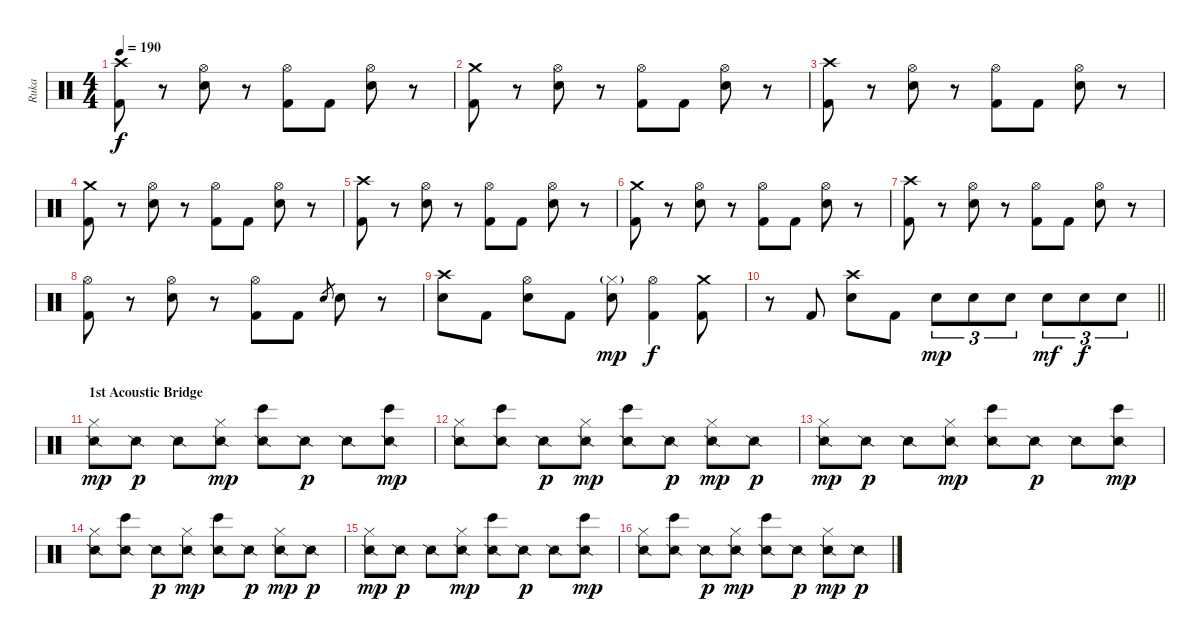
\track ("Ruka " "Ruka ") {instrument percussion}
\staff {score}
\articulation defaults
\ts (4 4)
\tempo 190
\clef neutral
\ks c
("Crash high (hit)" "Kick (hit) 2").8{dy f} r.8 ("Hi-Hat (open)" "Electric Snare (hit)").8 r.8 ("Hi-Hat (open)" "Kick (hit) 2").8 "Kick (hit) 2".8 ("Hi-Hat (open)" "Electric Snare (hit)").8 r.8 |
("Crash medium (hit)" "Kick (hit) 2").8 r.8 ("Hi-Hat (open)" "Electric Snare (hit)").8 r.8 ("Hi-Hat (open)" "Kick (hit) 2").8 "Kick (hit) 2".8 ("Hi-Hat (open)" "Electric Snare (hit)").8 r.8 |
("Crash high (hit)" "Kick (hit) 2").8 r.8 ("Hi-Hat (open)" "Electric Snare (hit)").8 r.8 ("Hi-Hat (open)" "Kick (hit) 2").8 "Kick (hit) 2".8 ("Hi-Hat (open)" "Electric Snare (hit)").8 r.8 |
("Crash medium (hit)" "Kick (hit) 2").8 r.8 ("Hi-Hat (open)" "Electric Snare (hit)").8 r.8 ("Hi-Hat (open)" "Kick (hit) 2").8 "Kick (hit) 2".8 ("Hi-Hat (open)" "Electric Snare (hit)").8 r.8 |
("Crash high (hit)" "Kick (hit) 2").8 r.8 ("Hi-Hat (open)" "Electric Snare (hit)").8 r.8 ("Hi-Hat (open)" "Kick (hit) 2").8 "Kick (hit) 2".8 ("Hi-Hat (open)" "Electric Snare (hit)").8 r.8 |
("Crash medium (hit)" "Kick (hit) 2").8 r.8 ("Hi-Hat (open)" "Electric Snare (hit)").8 r.8 ("Hi-Hat (open)" "Kick (hit) 2").8 "Kick (hit) 2".8 ("Hi-Hat (open)" "Electric Snare (hit)").8 r.8 |
("Crash high (hit)" "Kick (hit) 2").8 r.8 ("Hi-Hat (open)" "Electric Snare (hit)").8 r.8 ("Hi-Hat (open)" "Kick (hit) 2").8 "Kick (hit) 2".8 ("Hi-Hat (open)" "Electric Snare (hit)").8 r.8 |
("Hi-Hat (open)" "Kick (hit) 2").8 r.8 ("Hi-Hat (open)" "Electric Snare (hit)").8 r.8 ("Hi-Hat (open)" "Kick (hit) 2").8 "Kick (hit) 2".8 "Electric Snare (hit)".8{gr} "Electric Snare (hit)".8 r.8 |
("Crash high (hit)" "Electric Snare (hit)").8 "Kick (hit) 2".8 ("Hi-Hat (open)" "Electric Snare (hit)").8 "Kick (hit) 2".8 ("Hi-Hat (closed)"{g} "Electric Snare (hit)").8{dy mp} ("Hi-Hat (open)" "Kick (hit) 2").4{dy f} ("Crash medium (hit)" "Kick (hit) 2").8 |
\barLineRight lightlight
r.8 "Kick (hit) 2".8 ("Crash high (hit)" "Electric Snare (hit)").8 "Kick (hit) 2".8 "Electric Snare (hit)".8{tu (3 2) dy mp} "Electric Snare (hit)".8{tu (3 2)} "Electric Snare (hit)".8{tu (3 2)} "Electric Snare (hit)".8{tu (3 2) dy mf} "Electric Snare (hit)".8{tu (3 2) dy f} "Electric Snare (hit)".8{tu (3 2)} |
\section ("" "1st Acoustic Bridge")
("Snare (side stick) 2" "Hi-Hat (closed)").8{dy mp} "Snare (side stick) 2".8{dy p} "Snare (side stick) 2".8 ("Snare (side stick) 2" "Hi-Hat (closed)").8{dy mp} ("Snare (side stick) 2" "Bongo High (hit)").8 "Snare (side stick) 2".8{dy p} "Snare (side stick) 2".8 ("Snare (side stick) 2" "Bongo High (hit)").8{dy mp} |
("Snare (side stick) 2" "Hi-Hat (closed)").8 ("Snare (side stick) 2" "Bongo High (hit)").8 "Snare (side stick) 2".8{dy p} ("Snare (side stick) 2" "Hi-Hat (closed)").8{dy mp} ("Snare (side stick) 2" "Bongo High (hit)").8 "Snare (side stick) 2".8{dy p} ("Snare (side stick) 2" "Hi-Hat (closed)").8{dy mp} "Snare (side stick) 2".8{dy p} |
("Snare (side stick) 2" "Hi-Hat (closed)").8{dy mp} "Snare (side stick) 2".8{dy p} "Snare (side stick) 2".8 ("Snare (side stick) 2" "Hi-Hat (closed)").8{dy mp} ("Snare (side stick) 2" "Bongo High (hit)").8 "Snare (side stick) 2".8{dy p} "Snare (side stick) 2".8 ("Snare (side stick) 2" "Bongo High (hit)").8{dy mp} |
("Snare (side stick) 2" "Hi-Hat (closed)").8 ("Snare (side stick) 2" "Bongo High (hit)").8 "Snare (side stick) 2".8{dy p} ("Snare (side stick) 2" "Hi-Hat (closed)").8{dy mp} ("Snare (side stick) 2" "Bongo High (hit)").8 "Snare (side stick) 2".8{dy p} ("Snare (side stick) 2" "Hi-Hat (closed)").8{dy mp} "Snare (side stick) 2".8{dy p} |
("Snare (side stick) 2" "Hi-Hat (closed)").8{dy mp} "Snare (side stick) 2".8{dy p} "Snare (side stick) 2".8 ("Snare (side stick) 2" "Hi-Hat (closed)").8{dy mp} ("Snare (side stick) 2" "Bongo High (hit)").8 "Snare (side stick) 2".8{dy p} "Snare (side stick) 2".8 ("Snare (side stick) 2" "Bongo High (hit)").8{dy mp} |
("Snare (side stick) 2" "Hi-Hat (closed)").8 ("Snare (side stick) 2" "Bongo High (hit)").8 "Snare (side stick) 2".8{dy p} ("Snare (side stick) 2" "Hi-Hat (closed)").8{dy mp} ("Snare (side stick) 2" "Bongo High (hit)").8 "Snare (side stick) 2".8{dy p} ("Snare (side stick) 2" "Hi-Hat (closed)").8{dy mp} "Snare (side stick) 2".8{dy p}
